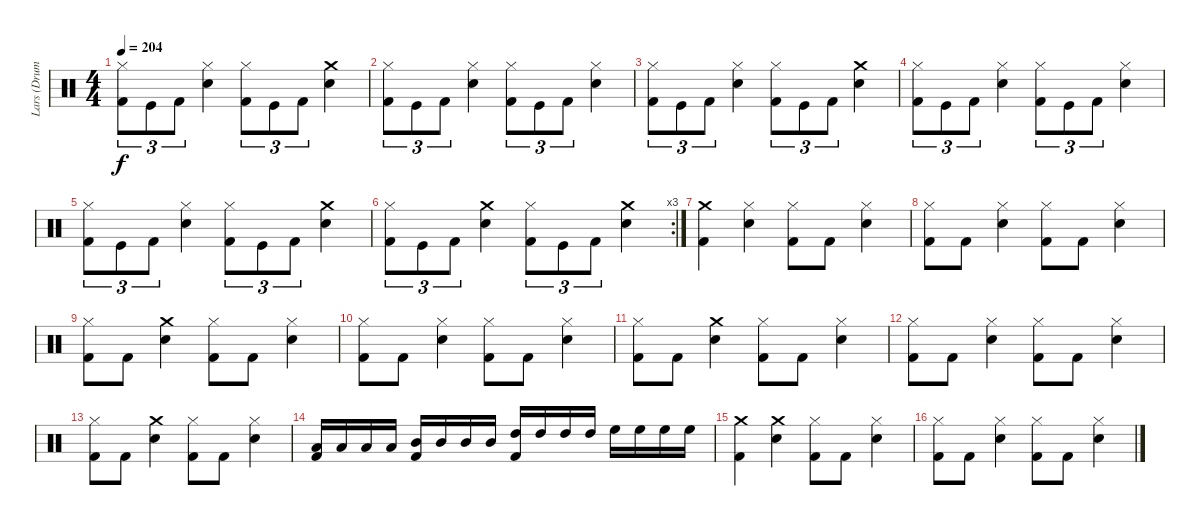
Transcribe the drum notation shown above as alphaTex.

\track ("Lars (Drums)" "Lars (Drum") {instrument percussion}
\staff {score}
\articulation defaults
\ts (4 4)
\tempo 204
\clef neutral
\ks c
("Hi-Hat (closed)" "Kick (hit) 2").8{tu (3 2) dy f} "Kick (hit)".8{tu (3 2)} "Kick (hit) 2".8{tu (3 2)} ("Snare (hit) 2" "Hi-Hat (closed)").4 ("Hi-Hat (closed)" "Kick (hit) 2").8{tu (3 2)} "Kick (hit)".8{tu (3 2)} "Kick (hit) 2".8{tu (3 2)} ("Crash medium (hit)" "Snare (hit) 2").4 |
("Hi-Hat (closed)" "Kick (hit) 2").8{tu (3 2)} "Kick (hit)".8{tu (3 2)} "Kick (hit) 2".8{tu (3 2)} ("Snare (hit) 2" "Hi-Hat (closed)").4 ("Hi-Hat (closed)" "Kick (hit) 2").8{tu (3 2)} "Kick (hit)".8{tu (3 2)} "Kick (hit) 2".8{tu (3 2)} ("Hi-Hat (closed)" "Snare (hit) 2").4 |
("Hi-Hat (closed)" "Kick (hit) 2").8{tu (3 2)} "Kick (hit)".8{tu (3 2)} "Kick (hit) 2".8{tu (3 2)} ("Snare (hit) 2" "Hi-Hat (closed)").4 ("Hi-Hat (closed)" "Kick (hit) 2").8{tu (3 2)} "Kick (hit)".8{tu (3 2)} "Kick (hit) 2".8{tu (3 2)} ("Crash medium (hit)" "Snare (hit) 2").4 |
("Hi-Hat (closed)" "Kick (hit) 2").8{tu (3 2)} "Kick (hit)".8{tu (3 2)} "Kick (hit) 2".8{tu (3 2)} ("Snare (hit) 2" "Hi-Hat (closed)").4 ("Hi-Hat (closed)" "Kick (hit) 2").8{tu (3 2)} "Kick (hit)".8{tu (3 2)} "Kick (hit) 2".8{tu (3 2)} ("Hi-Hat (closed)" "Snare (hit) 2").4 |
("Hi-Hat (closed)" "Kick (hit) 2").8{tu (3 2)} "Kick (hit)".8{tu (3 2)} "Kick (hit) 2".8{tu (3 2)} ("Snare (hit) 2" "Hi-Hat (closed)").4 ("Hi-Hat (closed)" "Kick (hit) 2").8{tu (3 2)} "Kick (hit)".8{tu (3 2)} "Kick (hit) 2".8{tu (3 2)} ("Crash medium (hit)" "Snare (hit) 2").4 |
\rc 3
("Hi-Hat (closed)" "Kick (hit) 2").8{tu (3 2)} "Kick (hit)".8{tu (3 2)} "Kick (hit) 2".8{tu (3 2)} ("Crash medium (hit)" "Snare (hit) 2").4 ("Hi-Hat (closed)" "Kick (hit) 2").8{tu (3 2)} "Kick (hit)".8{tu (3 2)} "Kick (hit) 2".8{tu (3 2)} ("Crash medium (hit)" "Snare (hit) 2").4 |
("Kick (hit) 2" "Crash medium (hit)").4 ("Hi-Hat (closed)" "Snare (hit) 2").4 ("Hi-Hat (closed)" "Kick (hit) 2").8 "Kick (hit) 2".8 ("Snare (hit) 2" "Hi-Hat (closed)").4 |
("Kick (hit) 2" "Hi-Hat (closed)").8 "Kick (hit) 2".8 ("Snare (hit) 2" "Hi-Hat (closed)").4 ("Kick (hit) 2" "Hi-Hat (closed)").8 "Kick (hit) 2".8 ("Snare (hit) 2" "Hi-Hat (closed)").4 |
("Kick (hit) 2" "Hi-Hat (closed)").8 "Kick (hit) 2".8 ("Crash medium (hit)" "Snare (hit) 2").4 ("Kick (hit) 2" "Hi-Hat (closed)").8 "Kick (hit) 2".8 ("Snare (hit) 2" "Hi-Hat (closed)").4 |
("Kick (hit) 2" "Hi-Hat (closed)").8 "Kick (hit) 2".8 ("Snare (hit) 2" "Hi-Hat (closed)").4 ("Kick (hit) 2" "Hi-Hat (closed)").8 "Kick (hit) 2".8 ("Snare (hit) 2" "Hi-Hat (closed)").4 |
("Kick (hit) 2" "Hi-Hat (closed)").8 "Kick (hit) 2".8 ("Crash medium (hit)" "Snare (hit) 2").4 ("Kick (hit) 2" "Hi-Hat (closed)").8 "Kick (hit) 2".8 ("Snare (hit) 2" "Hi-Hat (closed)").4 |
("Kick (hit) 2" "Hi-Hat (closed)").8 "Kick (hit) 2".8 ("Snare (hit) 2" "Hi-Hat (closed)").4 ("Kick (hit) 2" "Hi-Hat (closed)").8 "Kick (hit) 2".8 ("Snare (hit) 2" "Hi-Hat (closed)").4 |
("Kick (hit) 2" "Hi-Hat (closed)").8 "Kick (hit) 2".8 ("Crash medium (hit)" "Snare (hit) 2").4 ("Kick (hit) 2" "Hi-Hat (closed)").8 "Kick (hit) 2".8 ("Snare (hit) 2" "Hi-Hat (closed)").4 |
("Low Tom (hit)" "Kick (hit) 2").16 "Low Tom (hit)".16 "Low Tom (hit)".16 "Low Tom (hit)".16 ("Mid Tom (hit)" "Kick (hit) 2").16 "Mid Tom (hit)".16 "Mid Tom (hit)".16 "Mid Tom (hit)".16 ("High Tom (hit)" "Kick (hit) 2").16 "High Tom (hit)".16 "High Tom (hit)".16 "High Tom (hit)".16 "High Floor Tom (hit)".16 "High Floor Tom (hit)".16 "High Floor Tom (hit)".16 "High Floor Tom (hit)".16 |
("Kick (hit) 2" "Crash medium (hit)").4 ("Snare (hit) 2" "Crash medium (hit)").4 ("Hi-Hat (closed)" "Kick (hit) 2").8 "Kick (hit) 2".8 ("Hi-Hat (closed)" "Snare (hit) 2").4 |
("Kick (hit) 2" "Hi-Hat (closed)").8 "Kick (hit) 2".8 ("Snare (hit) 2" "Hi-Hat (closed)").4 ("Kick (hit) 2" "Hi-Hat (closed)").8 "Kick (hit) 2".8 ("Snare (hit) 2" "Hi-Hat (closed)").4
